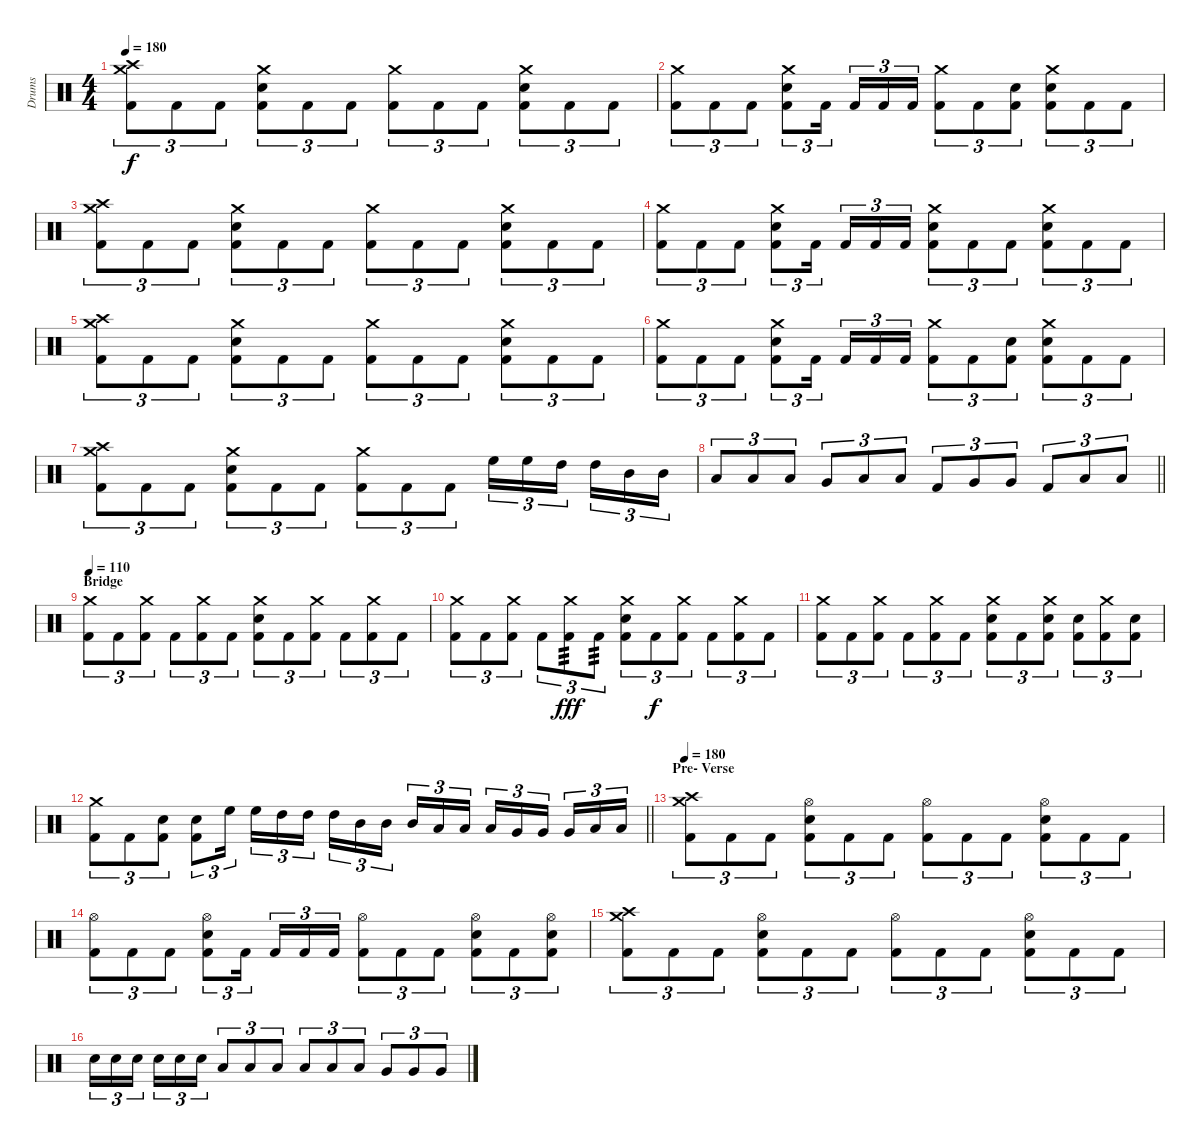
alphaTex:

\track ("Drums" "Drums") {instrument percussion}
\staff {score}
\articulation defaults
\ts (4 4)
\tempo 180
\clef neutral
\ks c
("Crash medium (hit)" "Crash high (hit)" "Kick (hit) 2").8{tu (3 2) dy f} "Kick (hit) 2".8{tu (3 2)} "Kick (hit) 2".8{tu (3 2)} ("Crash medium (hit)" "Electric Snare (hit)" "Kick (hit) 2").8{tu (3 2)} "Kick (hit) 2".8{tu (3 2)} "Kick (hit) 2".8{tu (3 2)} ("Crash medium (hit)" "Kick (hit) 2").8{tu (3 2)} "Kick (hit) 2".8{tu (3 2)} "Kick (hit) 2".8{tu (3 2)} ("Crash medium (hit)" "Electric Snare (hit)" "Kick (hit) 2").8{tu (3 2)} "Kick (hit) 2".8{tu (3 2)} "Kick (hit) 2".8{tu (3 2)} |
("Crash medium (hit)" "Kick (hit) 2").8{tu (3 2)} "Kick (hit) 2".8{tu (3 2)} "Kick (hit) 2".8{tu (3 2)} ("Crash medium (hit)" "Electric Snare (hit)" "Kick (hit) 2").8{tu (3 2)} "Kick (hit) 2".16{tu (3 2) beam splitsecondary} "Kick (hit) 2".16{tu (3 2)} "Kick (hit) 2".16{tu (3 2)} "Kick (hit) 2".16{tu (3 2)} ("Crash medium (hit)" "Kick (hit) 2").8{tu (3 2)} "Kick (hit) 2".8{tu (3 2)} ("Electric Snare (hit)" "Kick (hit) 2").8{tu (3 2)} ("Crash medium (hit)" "Electric Snare (hit)" "Kick (hit) 2").8{tu (3 2)} "Kick (hit) 2".8{tu (3 2)} "Kick (hit) 2".8{tu (3 2)} |
("Crash medium (hit)" "Crash high (hit)" "Kick (hit) 2").8{tu (3 2)} "Kick (hit) 2".8{tu (3 2)} "Kick (hit) 2".8{tu (3 2)} ("Crash medium (hit)" "Electric Snare (hit)" "Kick (hit) 2").8{tu (3 2)} "Kick (hit) 2".8{tu (3 2)} "Kick (hit) 2".8{tu (3 2)} ("Crash medium (hit)" "Kick (hit) 2").8{tu (3 2)} "Kick (hit) 2".8{tu (3 2)} "Kick (hit) 2".8{tu (3 2)} ("Crash medium (hit)" "Electric Snare (hit)" "Kick (hit) 2").8{tu (3 2)} "Kick (hit) 2".8{tu (3 2)} "Kick (hit) 2".8{tu (3 2)} |
("Crash medium (hit)" "Kick (hit) 2").8{tu (3 2)} "Kick (hit) 2".8{tu (3 2)} "Kick (hit) 2".8{tu (3 2)} ("Crash medium (hit)" "Electric Snare (hit)" "Kick (hit) 2").8{tu (3 2)} "Kick (hit) 2".16{tu (3 2) beam splitsecondary} "Kick (hit) 2".16{tu (3 2)} "Kick (hit) 2".16{tu (3 2)} "Kick (hit) 2".16{tu (3 2)} ("Crash medium (hit)" "Electric Snare (hit)" "Kick (hit) 2").8{tu (3 2)} "Kick (hit) 2".8{tu (3 2)} "Kick (hit) 2".8{tu (3 2)} ("Crash medium (hit)" "Electric Snare (hit)" "Kick (hit) 2").8{tu (3 2)} "Kick (hit) 2".8{tu (3 2)} "Kick (hit) 2".8{tu (3 2)} |
("Crash medium (hit)" "Crash high (hit)" "Kick (hit) 2").8{tu (3 2)} "Kick (hit) 2".8{tu (3 2)} "Kick (hit) 2".8{tu (3 2)} ("Crash medium (hit)" "Electric Snare (hit)" "Kick (hit) 2").8{tu (3 2)} "Kick (hit) 2".8{tu (3 2)} "Kick (hit) 2".8{tu (3 2)} ("Crash medium (hit)" "Kick (hit) 2").8{tu (3 2)} "Kick (hit) 2".8{tu (3 2)} "Kick (hit) 2".8{tu (3 2)} ("Crash medium (hit)" "Electric Snare (hit)" "Kick (hit) 2").8{tu (3 2)} "Kick (hit) 2".8{tu (3 2)} "Kick (hit) 2".8{tu (3 2)} |
("Crash medium (hit)" "Kick (hit) 2").8{tu (3 2)} "Kick (hit) 2".8{tu (3 2)} "Kick (hit) 2".8{tu (3 2)} ("Crash medium (hit)" "Electric Snare (hit)" "Kick (hit) 2").8{tu (3 2)} "Kick (hit) 2".16{tu (3 2) beam splitsecondary} "Kick (hit) 2".16{tu (3 2)} "Kick (hit) 2".16{tu (3 2)} "Kick (hit) 2".16{tu (3 2)} ("Crash medium (hit)" "Kick (hit) 2").8{tu (3 2)} "Kick (hit) 2".8{tu (3 2)} ("Electric Snare (hit)" "Kick (hit) 2").8{tu (3 2)} ("Crash medium (hit)" "Electric Snare (hit)" "Kick (hit) 2").8{tu (3 2)} "Kick (hit) 2".8{tu (3 2)} "Kick (hit) 2".8{tu (3 2)} |
("Crash medium (hit)" "Crash high (hit)" "Kick (hit) 2").8{tu (3 2)} "Kick (hit) 2".8{tu (3 2)} "Kick (hit) 2".8{tu (3 2)} ("Crash medium (hit)" "Electric Snare (hit)" "Kick (hit) 2").8{tu (3 2)} "Kick (hit) 2".8{tu (3 2)} "Kick (hit) 2".8{tu (3 2)} ("Crash medium (hit)" "Kick (hit) 2").8{tu (3 2)} "Kick (hit) 2".8{tu (3 2)} "Kick (hit) 2".8{tu (3 2)} "High Floor Tom (hit)".16{tu (3 2)} "High Floor Tom (hit)".16{tu (3 2)} "High Tom (hit)".16{tu (3 2) beam splitsecondary} "High Tom (hit)".16{tu (3 2)} "Mid Tom (hit)".16{tu (3 2)} "Mid Tom (hit)".16{tu (3 2)} |
\barLineRight lightlight "Low Tom (hit)".8{tu (3 2)} "Low Tom (hit)".8{tu (3 2)} "Low Tom (hit)".8{tu (3 2)} "Very Low Tom (hit)".8{tu (3 2)} "Low Floor Tom (hit)".8{tu (3 2)} "Low Floor Tom (hit)".8{tu (3 2)} "Kick (hit) 2".8{tu (3 2)} "Very Low Tom (hit)".8{tu (3 2)} "Very Low Tom (hit)".8{tu (3 2)} "Kick (hit) 2".8{tu (3 2)} "Low Floor Tom (hit)".8{tu (3 2)} "Low Floor Tom (hit)".8{tu (3 2)}
|
\section ("" "Bridge")
\tempo 110
("Crash medium (hit)" "Kick (hit) 2").8{tu (3 2)} "Kick (hit) 2".8{tu (3 2)} ("Crash medium (hit)" "Kick (hit) 2").8{tu (3 2)} "Kick (hit) 2".8{tu (3 2)} ("Crash medium (hit)" "Kick (hit) 2").8{tu (3 2)} "Kick (hit) 2".8{tu (3 2)} ("Crash medium (hit)" "Electric Snare (hit)" "Kick (hit) 2").8{tu (3 2)} "Kick (hit) 2".8{tu (3 2)} ("Crash medium (hit)" "Kick (hit) 2").8{tu (3 2)} "Kick (hit) 2".8{tu (3 2)} ("Crash medium (hit)" "Kick (hit) 2").8{tu (3 2)} "Kick (hit) 2".8{tu (3 2)} |
("Crash medium (hit)" "Kick (hit) 2").8{tu (3 2)} "Kick (hit) 2".8{tu (3 2)} ("Crash medium (hit)" "Kick (hit) 2").8{tu (3 2)} "Kick (hit) 2".8{tu (3 2)} ("Crash medium (hit)" "Kick (hit) 2").8{tu (3 2) tp 3 dy fff} "Kick (hit) 2".8{tu (3 2) tp 3} ("Crash medium (hit)" "Electric Snare (hit)" "Kick (hit) 2").8{tu (3 2)} "Kick (hit) 2".8{tu (3 2) dy f} ("Crash medium (hit)" "Kick (hit) 2").8{tu (3 2)} "Kick (hit) 2".8{tu (3 2)} ("Crash medium (hit)" "Kick (hit) 2").8{tu (3 2)} "Kick (hit) 2".8{tu (3 2)} |
("Crash medium (hit)" "Kick (hit) 2").8{tu (3 2)} "Kick (hit) 2".8{tu (3 2)} ("Crash medium (hit)" "Kick (hit) 2").8{tu (3 2)} "Kick (hit) 2".8{tu (3 2)} ("Crash medium (hit)" "Kick (hit) 2").8{tu (3 2)} "Kick (hit) 2".8{tu (3 2)} ("Crash medium (hit)" "Electric Snare (hit)" "Kick (hit) 2").8{tu (3 2)} "Kick (hit) 2".8{tu (3 2)} ("Crash medium (hit)" "Electric Snare (hit)" "Kick (hit) 2").8{tu (3 2)} ("Electric Snare (hit)" "Kick (hit) 2").8{tu (3 2)} ("Crash medium (hit)" "Kick (hit) 2").8{tu (3 2)} ("Electric Snare (hit)" "Kick (hit) 2").8{tu (3 2)} |
\barLineRight lightlight
("Crash medium (hit)" "Kick (hit) 2").8{tu (3 2)} "Kick (hit) 2".8{tu (3 2)} ("Electric Snare (hit)" "Kick (hit) 2").8{tu (3 2)} ("Electric Snare (hit)" "Kick (hit) 2").8{tu (3 2)} "High Floor Tom (hit)".16{tu (3 2) beam splitsecondary} "High Floor Tom (hit)".16{tu (3 2)} "High Tom (hit)".16{tu (3 2)} "High Tom (hit)".16{tu (3 2)} "High Tom (hit)".16{tu (3 2)} "Mid Tom (hit)".16{tu (3 2)} "Mid Tom (hit)".16{tu (3 2) beam splitsecondary} "Mid Tom (hit)".16{tu (3 2)} "Low Tom (hit)".16{tu (3 2)} "Low Tom (hit)".16{tu (3 2)} "Low Tom (hit)".16{tu (3 2)} "Very Low Tom (hit)".16{tu (3 2)} "Very Low Tom (hit)".16{tu (3 2) beam splitsecondary} "Very Low Tom (hit)".16{tu (3 2)} "Low Floor Tom (hit)".16{tu (3 2)} "Low Floor Tom (hit)".16{tu (3 2)} |
\section ("" "Pre- Verse")
\tempo 180
("Crash medium (hit)" "Crash high (hit)" "Kick (hit) 2").8{tu (3 2)} "Kick (hit) 2".8{tu (3 2)} "Kick (hit) 2".8{tu (3 2)} ("Hi-Hat (open)" "Electric Snare (hit)" "Kick (hit) 2").8{tu (3 2)} "Kick (hit) 2".8{tu (3 2)} "Kick (hit) 2".8{tu (3 2)} ("Hi-Hat (open)" "Kick (hit) 2").8{tu (3 2)} "Kick (hit) 2".8{tu (3 2)} "Kick (hit) 2".8{tu (3 2)} ("Hi-Hat (open)" "Electric Snare (hit)" "Kick (hit) 2").8{tu (3 2)} "Kick (hit) 2".8{tu (3 2)} "Kick (hit) 2".8{tu (3 2)} |
("Hi-Hat (open)" "Kick (hit) 2").8{tu (3 2)} "Kick (hit) 2".8{tu (3 2)} "Kick (hit) 2".8{tu (3 2)} ("Hi-Hat (open)" "Electric Snare (hit)" "Kick (hit) 2").8{tu (3 2)} "Kick (hit) 2".16{tu (3 2) beam splitsecondary} "Kick (hit) 2".16{tu (3 2)} "Kick (hit) 2".16{tu (3 2)} "Kick (hit) 2".16{tu (3 2)} ("Hi-Hat (open)" "Kick (hit) 2").8{tu (3 2)} "Kick (hit) 2".8{tu (3 2)} "Kick (hit) 2".8{tu (3 2)} ("Hi-Hat (open)" "Electric Snare (hit)" "Kick (hit) 2").8{tu (3 2)} "Kick (hit) 2".8{tu (3 2)} ("Hi-Hat (open)" "Electric Snare (hit)" "Kick (hit) 2").8{tu (3 2)} |
("Crash medium (hit)" "Crash high (hit)" "Kick (hit) 2").8{tu (3 2)} "Kick (hit) 2".8{tu (3 2)} "Kick (hit) 2".8{tu (3 2)} ("Hi-Hat (open)" "Electric Snare (hit)" "Kick (hit) 2").8{tu (3 2)} "Kick (hit) 2".8{tu (3 2)} "Kick (hit) 2".8{tu (3 2)} ("Hi-Hat (open)" "Kick (hit) 2").8{tu (3 2)} "Kick (hit) 2".8{tu (3 2)} "Kick (hit) 2".8{tu (3 2)} ("Hi-Hat (open)" "Electric Snare (hit)" "Kick (hit) 2").8{tu (3 2)} "Kick (hit) 2".8{tu (3 2)} "Kick (hit) 2".8{tu (3 2)} |
"Electric Snare (hit)".16{tu (3 2)} "Electric Snare (hit)".16{tu (3 2)} "Electric Snare (hit)".16{tu (3 2) beam splitsecondary} "Electric Snare (hit)".16{tu (3 2)} "Electric Snare (hit)".16{tu (3 2)} "Electric Snare (hit)".16{tu (3 2)} "Low Floor Tom (hit)".8{tu (3 2)} "Low Floor Tom (hit)".8{tu (3 2)} "Low Floor Tom (hit)".8{tu (3 2)} "Low Tom (hit)".8{tu (3 2)} "Low Tom (hit)".8{tu (3 2)} "Low Tom (hit)".8{tu (3 2)} "Very Low Tom (hit)".8{tu (3 2)} "Very Low Tom (hit)".8{tu (3 2)} "Very Low Tom (hit)".8{tu (3 2)}
